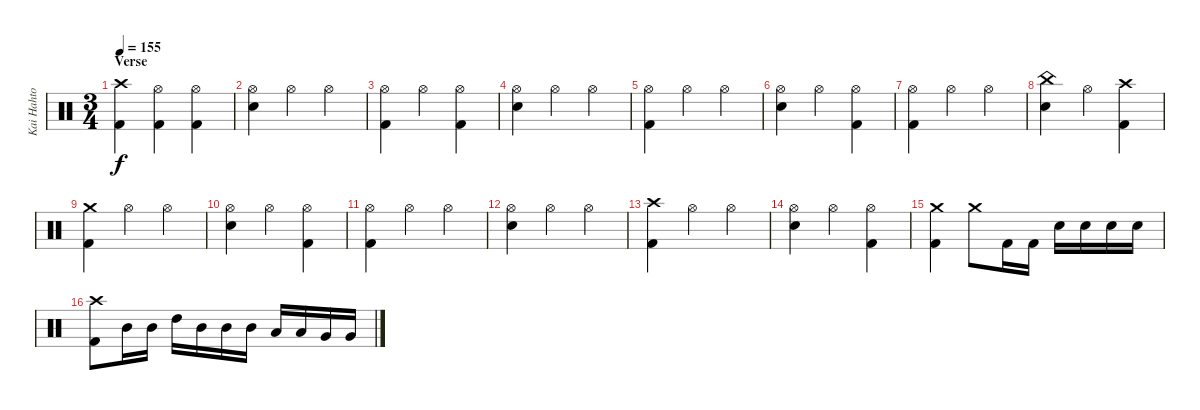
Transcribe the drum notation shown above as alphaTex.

\track ("Kai Hahto" "Kai Hahto") {instrument percussion}
\staff {score}
\articulation defaults
\ts (3 4)
\section ("" "Verse")
\tempo 155
\clef neutral
\ks c
("Crash high (hit)" "Kick (hit) 2").4{dy f} ("Hi-Hat (open)" "Kick (hit) 2").4 ("Hi-Hat (open)" "Kick (hit) 2").4 |
("Hi-Hat (open)" "Electric Snare (hit)").4 "Hi-Hat (open)".4 "Hi-Hat (open)".4 |
("Hi-Hat (open)" "Kick (hit) 2").4 "Hi-Hat (open)".4 ("Hi-Hat (open)" "Kick (hit) 2").4 |
("Hi-Hat (open)" "Electric Snare (hit)").4 "Hi-Hat (open)".4 "Hi-Hat (open)".4 |
("Hi-Hat (open)" "Kick (hit) 2").4 "Hi-Hat (open)".4 "Hi-Hat (open)".4 |
("Hi-Hat (open)" "Electric Snare (hit)").4 "Hi-Hat (open)".4 ("Hi-Hat (open)" "Kick (hit) 2").4 |
("Hi-Hat (open)" "Kick (hit) 2").4 "Hi-Hat (open)".4 "Hi-Hat (open)".4 |
("China (hit)" "Electric Snare (hit)").4 "Hi-Hat (open)".4 ("Crash high (hit)" "Kick (hit) 2").4 |
("Crash medium (hit)" "Kick (hit) 2").4 "Hi-Hat (open)".4 "Hi-Hat (open)".4 |
("Hi-Hat (open)" "Electric Snare (hit)").4 "Hi-Hat (open)".4 ("Hi-Hat (open)" "Kick (hit) 2").4 |
("Hi-Hat (open)" "Kick (hit) 2").4 "Hi-Hat (open)".4 "Hi-Hat (open)".4 |
("Hi-Hat (open)" "Electric Snare (hit)").4 "Hi-Hat (open)".4 "Hi-Hat (open)".4 |
("Crash high (hit)" "Kick (hit) 2").4 "Hi-Hat (open)".4 "Hi-Hat (open)".4 |
("Hi-Hat (open)" "Electric Snare (hit)").4 "Hi-Hat (open)".4 ("Hi-Hat (open)" "Kick (hit) 2").4 |
("Crash medium (hit)" "Kick (hit) 2").4 "Crash medium (hit)".8 "Kick (hit) 2".16 "Kick (hit) 2".16 "Electric Snare (hit)".16 "Electric Snare (hit)".16 "Electric Snare (hit)".16 "Electric Snare (hit)".16 |
("Crash high (hit)" "Kick (hit) 2").8 "Mid Tom (hit)".16 "Mid Tom (hit)".16 "High Tom (hit)".16 "Mid Tom (hit)".16 "Mid Tom (hit)".16 "Mid Tom (hit)".16 "Low Tom (hit)".16 "Low Tom (hit)".16 "Very Low Tom (hit)".16 "Very Low Tom (hit)".16
